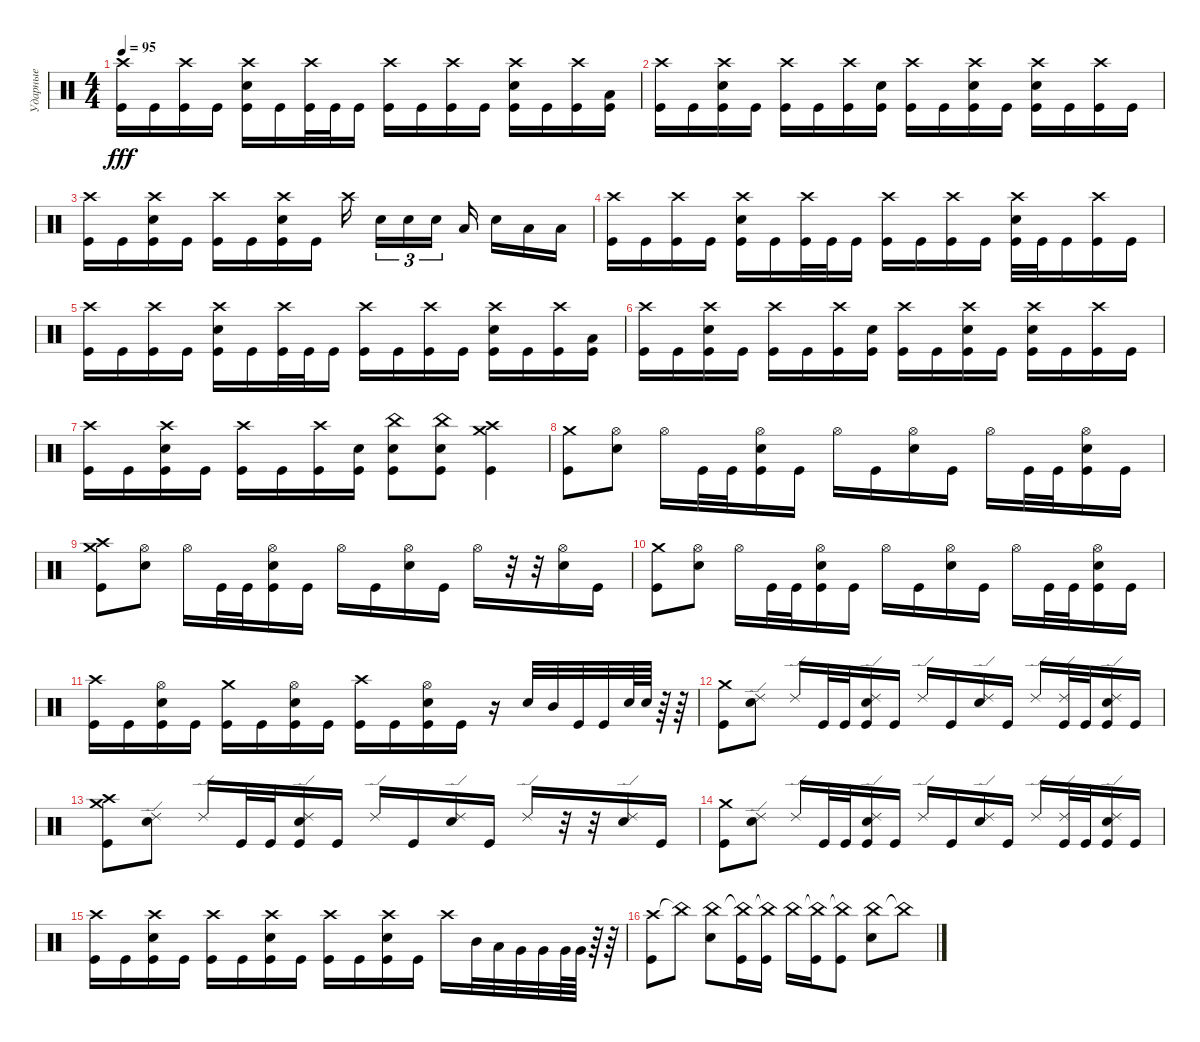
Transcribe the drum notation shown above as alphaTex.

\track ("Ударные" "Ударные") {instrument percussion}
\staff {score}
\articulation defaults
\ts (4 4)
\tempo 95
\clef neutral
\ks c
("Crash high (hit)" "Kick (hit)").16{dy fff} "Kick (hit)".16 ("Crash high (hit)" "Kick (hit)").16 "Kick (hit)".16 ("Crash high (hit)" "Snare (hit) 2" "Kick (hit)").16 "Kick (hit)".16 ("Crash high (hit)" "Kick (hit)").32 "Kick (hit)".32 "Kick (hit)".16 ("Crash high (hit)" "Kick (hit)").16 "Kick (hit)".16 ("Crash high (hit)" "Kick (hit)").16 "Kick (hit)".16 ("Crash high (hit)" "Snare (hit) 2" "Kick (hit)").16 "Kick (hit)".16 ("Crash high (hit)" "Kick (hit)").16 ("Low Tom (hit)" "Kick (hit)").16 |
("Crash high (hit)" "Kick (hit)").16 "Kick (hit)".16 ("Crash high (hit)" "Snare (hit) 2" "Kick (hit)").16 "Kick (hit)".16 ("Crash high (hit)" "Kick (hit)").16 "Kick (hit)".16 ("Crash high (hit)" "Kick (hit)").16 ("Snare (hit) 2" "Kick (hit)").16 ("Crash high (hit)" "Kick (hit)").16 "Kick (hit)".16 ("Crash high (hit)" "Snare (hit) 2" "Kick (hit)").16 "Kick (hit)".16 ("Crash high (hit)" "Snare (hit) 2" "Kick (hit)").16 "Kick (hit)".16 ("Crash high (hit)" "Kick (hit)").16 "Kick (hit)".16 |
("Crash high (hit)" "Kick (hit)").16 "Kick (hit)".16 ("Crash high (hit)" "Snare (hit) 2" "Kick (hit)").16 "Kick (hit)".16 ("Crash high (hit)" "Kick (hit)").16 "Kick (hit)".16 ("Crash high (hit)" "Snare (hit) 2" "Kick (hit)").16 "Kick (hit)".16 "Crash high (hit)".16{beam splitsecondary} "Snare (hit) 2".16{tu (3 2)} "Snare (hit) 2".16{tu (3 2)} "Snare (hit) 2".16{tu (3 2) beam splitsecondary} "Low Tom (hit)".16 "Snare (hit) 2".16 "Low Floor Tom (hit)".16 "Low Floor Tom (hit)".16 |
("Crash high (hit)" "Kick (hit)").16 "Kick (hit)".16 ("Crash high (hit)" "Kick (hit)").16 "Kick (hit)".16 ("Crash high (hit)" "Snare (hit) 2" "Kick (hit)").16 "Kick (hit)".16 ("Crash high (hit)" "Kick (hit)").32 "Kick (hit)".32 "Kick (hit)".16 ("Crash high (hit)" "Kick (hit)").16 "Kick (hit)".16 ("Crash high (hit)" "Kick (hit)").16 "Kick (hit)".16 ("Crash high (hit)" "Snare (hit) 2" "Kick (hit)").32 "Kick (hit)".32 "Kick (hit)".16 ("Crash high (hit)" "Kick (hit)").16 "Kick (hit)".16 |
("Crash high (hit)" "Kick (hit)").16 "Kick (hit)".16 ("Crash high (hit)" "Kick (hit)").16 "Kick (hit)".16 ("Crash high (hit)" "Snare (hit) 2" "Kick (hit)").16 "Kick (hit)".16 ("Crash high (hit)" "Kick (hit)").32 "Kick (hit)".32 "Kick (hit)".16 ("Crash high (hit)" "Kick (hit)").16 "Kick (hit)".16 ("Crash high (hit)" "Kick (hit)").16 "Kick (hit)".16 ("Crash high (hit)" "Snare (hit) 2" "Kick (hit)").16 "Kick (hit)".16 ("Crash high (hit)" "Kick (hit)").16 ("Low Tom (hit)" "Kick (hit)").16 |
("Crash high (hit)" "Kick (hit)").16 "Kick (hit)".16 ("Crash high (hit)" "Snare (hit) 2" "Kick (hit)").16 "Kick (hit)".16 ("Crash high (hit)" "Kick (hit)").16 "Kick (hit)".16 ("Crash high (hit)" "Kick (hit)").16 ("Snare (hit) 2" "Kick (hit)").16 ("Crash high (hit)" "Kick (hit)").16 "Kick (hit)".16 ("Crash high (hit)" "Snare (hit) 2" "Kick (hit)").16 "Kick (hit)".16 ("Crash high (hit)" "Snare (hit) 2" "Kick (hit)").16 "Kick (hit)".16 ("Crash high (hit)" "Kick (hit)").16 "Kick (hit)".16 |
("Crash high (hit)" "Kick (hit)").16 "Kick (hit)".16 ("Crash high (hit)" "Snare (hit) 2" "Kick (hit)").16 "Kick (hit)".16 ("Crash high (hit)" "Kick (hit)").16 "Kick (hit)".16 ("Crash high (hit)" "Kick (hit)").16 ("Snare (hit) 2" "Kick (hit)").16 ("China (hit)" "Snare (hit) 2" "Kick (hit)").8 ("China (hit)" "Snare (hit) 2" "Kick (hit)").8 ("Crash high (hit)" "Crash medium (hit)" "Kick (hit)").4 |
("Crash medium (hit)" "Kick (hit)").8 ("Hi-Hat (open)" "Snare (hit) 2").8 "Hi-Hat (open)".16 "Kick (hit)".32 "Kick (hit)".32 ("Hi-Hat (open)" "Snare (hit) 2" "Kick (hit)").16 "Kick (hit)".16 "Hi-Hat (open)".16 "Kick (hit)".16 ("Hi-Hat (open)" "Snare (hit) 2").16 "Kick (hit)".16 "Hi-Hat (open)".16 "Kick (hit)".32 "Kick (hit)".32 ("Hi-Hat (open)" "Snare (hit) 2" "Kick (hit)").16 "Kick (hit)".16 |
("Crash high (hit)" "Crash medium (hit)" "Kick (hit)").8 ("Hi-Hat (open)" "Snare (hit) 2").8 "Hi-Hat (open)".16 "Kick (hit)".32 "Kick (hit)".32 ("Hi-Hat (open)" "Snare (hit) 2" "Kick (hit)").16 "Kick (hit)".16 "Hi-Hat (open)".16 "Kick (hit)".16 ("Hi-Hat (open)" "Snare (hit) 2").16 "Kick (hit)".16 "Hi-Hat (open)".16 r.32 r.32 ("Hi-Hat (open)" "Snare (hit) 2").16 "Kick (hit)".16 |
("Crash medium (hit)" "Kick (hit)").8 ("Hi-Hat (open)" "Snare (hit) 2").8 "Hi-Hat (open)".16 "Kick (hit)".32 "Kick (hit)".32 ("Hi-Hat (open)" "Snare (hit) 2" "Kick (hit)").16 "Kick (hit)".16 "Hi-Hat (open)".16 "Kick (hit)".16 ("Hi-Hat (open)" "Snare (hit) 2").16 "Kick (hit)".16 "Hi-Hat (open)".16 "Kick (hit)".32 "Kick (hit)".32 ("Hi-Hat (open)" "Snare (hit) 2" "Kick (hit)").16 "Kick (hit)".16 |
("Crash high (hit)" "Kick (hit)").16 "Kick (hit)".16 ("Hi-Hat (open)" "Snare (hit) 2" "Kick (hit)").16 "Kick (hit)".16 ("Crash medium (hit)" "Kick (hit)").16 "Kick (hit)".16 ("Hi-Hat (open)" "Snare (hit) 2" "Kick (hit)").16 "Kick (hit)".16 ("Crash high (hit)" "Kick (hit)").16 "Kick (hit)".16 ("Hi-Hat (open)" "Snare (hit) 2" "Kick (hit)").16 "Kick (hit)".16 r.16 "Electric Snare (hit)".32 "Mid Tom (hit)".32 "Kick (hit)".32 "Kick (hit)".32 "Electric Snare (hit)".64 "Electric Snare (hit)".64 r.64 r.64 |
("Crash medium (hit)" "Kick (hit)").8 ("Ride (edge) 2" "Snare (hit) 2").8 "Ride (edge) 2".16 "Kick (hit)".32 "Kick (hit)".32 ("Ride (edge) 2" "Snare (hit) 2" "Kick (hit)").16 "Kick (hit)".16 "Ride (edge) 2".16 "Kick (hit)".16 ("Ride (edge) 2" "Snare (hit) 2").16 "Kick (hit)".16 "Ride (edge) 2".16 ("Ride (edge) 2" "Kick (hit)").32 "Kick (hit)".32 ("Ride (edge) 2" "Snare (hit) 2" "Kick (hit)").16 "Kick (hit)".16 |
("Crash high (hit)" "Crash medium (hit)" "Kick (hit)").8 ("Ride (edge) 2" "Snare (hit) 2").8 "Ride (edge) 2".16 "Kick (hit)".32 "Kick (hit)".32 ("Ride (edge) 2" "Snare (hit) 2" "Kick (hit)").16 "Kick (hit)".16 "Ride (edge) 2".16 "Kick (hit)".16 ("Ride (edge) 2" "Snare (hit) 2").16 "Kick (hit)".16 "Ride (edge) 2".16 r.32 r.32 ("Ride (edge) 2" "Snare (hit) 2").16 "Kick (hit)".16 |
("Crash medium (hit)" "Kick (hit)").8 ("Ride (edge) 2" "Snare (hit) 2").8 "Ride (edge) 2".16 "Kick (hit)".32 "Kick (hit)".32 ("Ride (edge) 2" "Snare (hit) 2" "Kick (hit)").16 "Kick (hit)".16 "Ride (edge) 2".16 "Kick (hit)".16 ("Ride (edge) 2" "Snare (hit) 2").16 "Kick (hit)".16 "Ride (edge) 2".16 ("Ride (edge) 2" "Kick (hit)").32 "Kick (hit)".32 ("Ride (edge) 2" "Snare (hit) 2" "Kick (hit)").16 "Kick (hit)".16 |
("Crash high (hit)" "Kick (hit)").16 "Kick (hit)".16 ("Crash high (hit)" "Snare (hit) 2" "Kick (hit)").16 "Kick (hit)".16 ("Crash high (hit)" "Kick (hit)").16 "Kick (hit)".16 ("Crash high (hit)" "Snare (hit) 2" "Kick (hit)").16 "Kick (hit)".16 ("Crash high (hit)" "Kick (hit)").16 "Kick (hit)".16 ("Crash high (hit)" "Snare (hit) 2" "Kick (hit)").16 "Kick (hit)".16 "Crash high (hit)".16 "Mid Tom (hit)".32 "Low Tom (hit)".32 "Very Low Tom (hit)".32 "Very Low Tom (hit)".32 "Very Low Tom (hit)".64 "Very Low Tom (hit)".64 r.64 r.64 |
("Crash high (hit)" "Kick (hit)").8 "China (hit)"{t}.8 ("China (hit)" "Snare (hit) 2").8 ("China (hit)"{t} "Kick (hit)").16 ("China (hit)"{t} "Kick (hit)").16 "China (hit)".16 ("China (hit)"{t} "Kick (hit)").16 ("China (hit)"{t} "Kick (hit)").8 ("China (hit)" "Snare (hit) 2").8 "China (hit)"{t}.8
